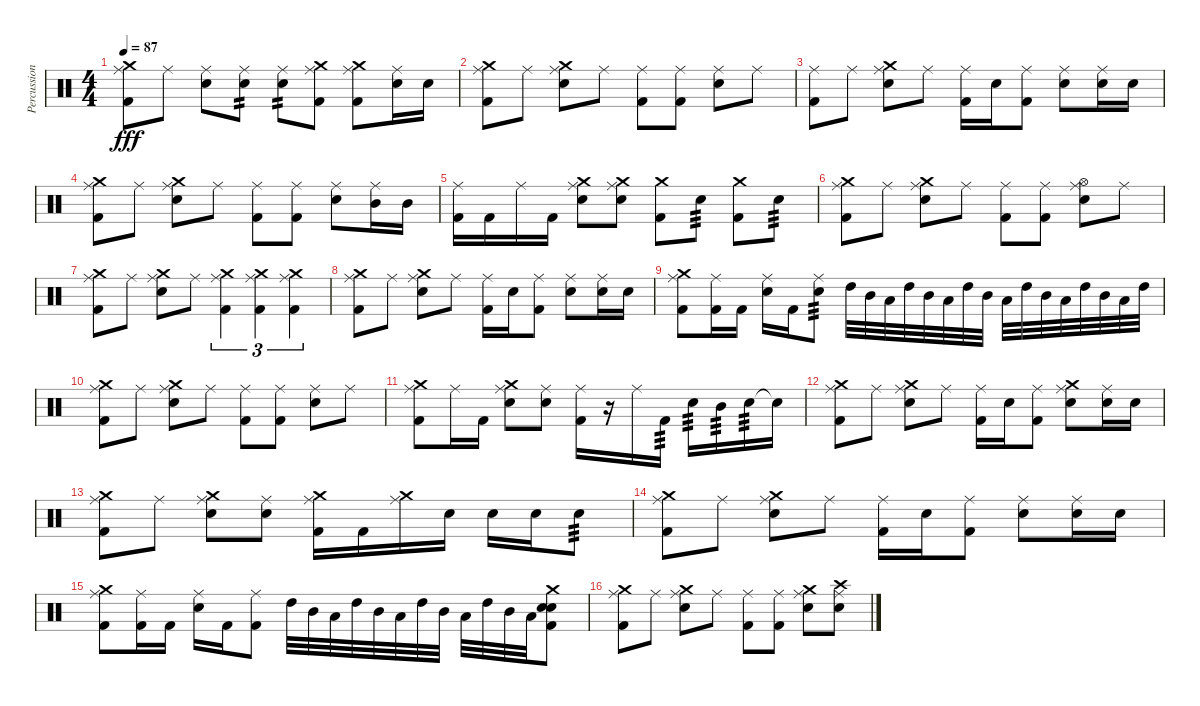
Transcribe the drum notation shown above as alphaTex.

\track ("Percussion" "Percussion") {instrument percussion}
\staff {score}
\articulation defaults
\ts (4 4)
\tempo 87
\clef neutral
\ks c
("Ride (middle)" "Crash medium (hit)" "Kick (hit) 2").8{dy fff} "Ride (middle)".8 ("Ride (middle)" "Electric Snare (hit)").8 ("Ride (middle)" "Electric Snare (hit)").8{tp 2} ("Ride (middle)" "Electric Snare (hit)").8{tp 2} ("Ride (middle)" "Crash medium (hit)" "Kick (hit) 2").8 ("Ride (middle)" "Crash medium (hit)" "Kick (hit) 2").8 ("Ride (middle)" "Electric Snare (hit)").16 "Electric Snare (hit)".16 |
("Ride (middle)" "Crash medium (hit)" "Kick (hit) 2").8 "Ride (middle)".8 ("Ride (middle)" "Crash medium (hit)" "Electric Snare (hit)").8 "Ride (middle)".8 ("Ride (middle)" "Kick (hit) 2").8 ("Ride (middle)" "Kick (hit) 2").8 ("Ride (middle)" "Electric Snare (hit)").8 "Ride (middle)".8 |
("Ride (middle)" "Kick (hit) 2").8 "Ride (middle)".8 ("Ride (middle)" "Crash medium (hit)" "Electric Snare (hit)").8 "Ride (middle)".8 ("Ride (middle)" "Kick (hit) 2").16 "Electric Snare (hit)".16 ("Ride (middle)" "Kick (hit) 2").8 ("Ride (middle)" "Electric Snare (hit)").8 ("Ride (middle)" "Electric Snare (hit)").16 "Electric Snare (hit)".16 |
("Ride (middle)" "Crash medium (hit)" "Kick (hit) 2").8 "Ride (middle)".8 ("Ride (middle)" "Crash medium (hit)" "Electric Snare (hit)").8 "Ride (middle)".8 ("Ride (middle)" "Kick (hit) 2").8 ("Ride (middle)" "Kick (hit) 2").8 ("Ride (middle)" "Electric Snare (hit)").8 ("Ride (middle)" "Mid Tom (hit)").16 "Mid Tom (hit)".16 |
("Ride (middle)" "Kick (hit) 2").16 "Kick (hit) 2".16 "Ride (middle)".16 "Kick (hit) 2".16 ("Ride (middle)" "Crash medium (hit)" "Electric Snare (hit)").8 ("Ride (middle)" "Crash medium (hit)" "Electric Snare (hit)").8 ("Crash medium (hit)" "Kick (hit) 2").8 "Electric Snare (hit)".8{tp 3} ("Crash medium (hit)" "Kick (hit) 2").8 "Electric Snare (hit)".8{tp 3} |
("Ride (middle)" "Crash medium (hit)" "Kick (hit) 2").8 "Ride (middle)".8 ("Ride (middle)" "Crash medium (hit)" "Electric Snare (hit)").8 "Ride (middle)".8 ("Ride (middle)" "Kick (hit) 2").8 ("Ride (middle)" "Kick (hit) 2").8 ("Ride (middle)" "Hi-Hat (open)" "Electric Snare (hit)").8 "Ride (middle)".8 |
("Ride (middle)" "Crash medium (hit)" "Kick (hit) 2").8 "Ride (middle)".8 ("Ride (middle)" "Crash medium (hit)" "Electric Snare (hit)").8 "Ride (middle)".8 ("Ride (middle)" "Crash medium (hit)" "Kick (hit) 2").4{tu (3 2)} ("Ride (middle)" "Crash medium (hit)" "Kick (hit) 2").4{tu (3 2)} ("Ride (middle)" "Crash medium (hit)" "Kick (hit) 2").4{tu (3 2)} |
("Ride (middle)" "Crash medium (hit)" "Kick (hit) 2").8 "Ride (middle)".8 ("Ride (middle)" "Crash medium (hit)" "Electric Snare (hit)").8 "Ride (middle)".8 ("Ride (middle)" "Kick (hit) 2").16 "Electric Snare (hit)".16 ("Ride (middle)" "Kick (hit) 2").8 ("Ride (middle)" "Electric Snare (hit)").8 ("Ride (middle)" "Electric Snare (hit)").16 "Electric Snare (hit)".16 |
("Ride (middle)" "Crash medium (hit)" "Kick (hit) 2").8 ("Ride (middle)" "Kick (hit) 2").16 "Kick (hit) 2".16 ("Ride (middle)" "Electric Snare (hit)").16 "Kick (hit) 2".16 ("Ride (middle)" "Electric Snare (hit)").8{tp 3} "High Tom (hit)".32 "Mid Tom (hit)".32 "Low Tom (hit)".32 "High Tom (hit)".32 "Mid Tom (hit)".32 "Low Tom (hit)".32 "High Tom (hit)".32 "Mid Tom (hit)".32 "Low Tom (hit)".32 "High Tom (hit)".32 "Mid Tom (hit)".32 "Low Tom (hit)".32 "High Tom (hit)".32 "Mid Tom (hit)".32 "Low Tom (hit)".32 "High Tom (hit)".32 |
("Ride (middle)" "Crash medium (hit)" "Kick (hit) 2").8 "Ride (middle)".8 ("Ride (middle)" "Crash medium (hit)" "Electric Snare (hit)").8 "Ride (middle)".8 ("Ride (middle)" "Kick (hit) 2").8 ("Ride (middle)" "Kick (hit) 2").8 ("Ride (middle)" "Electric Snare (hit)").8 "Ride (middle)".8 |
("Ride (middle)" "Crash medium (hit)" "Kick (hit) 2").8 "Ride (middle)".16 "Kick (hit) 2".16 ("Ride (middle)" "Crash medium (hit)" "Electric Snare (hit)").8 ("Ride (middle)" "Electric Snare (hit)").8 ("Ride (middle)" "Kick (hit) 2").16 r.16 "Ride (middle)".16 "Kick (hit) 2".16{tp 3} "Electric Snare (hit)".16{tp 3} "Mid Tom (hit)".16{tp 3} "Electric Snare (hit)".16{tp 3} "Snare (hit)"{t}.16 |
("Ride (middle)" "Crash medium (hit)" "Kick (hit) 2").8 "Ride (middle)".8 ("Ride (middle)" "Crash medium (hit)" "Electric Snare (hit)").8 "Ride (middle)".8 ("Ride (middle)" "Kick (hit) 2").16 "Electric Snare (hit)".16 ("Ride (middle)" "Kick (hit) 2").8 ("Ride (middle)" "Crash medium (hit)" "Electric Snare (hit)").8 ("Ride (middle)" "Electric Snare (hit)").16 "Electric Snare (hit)".16 |
("Ride (middle)" "Crash medium (hit)" "Kick (hit) 2").8 "Ride (middle)".8 ("Ride (middle)" "Crash medium (hit)" "Electric Snare (hit)").8 ("Ride (middle)" "Electric Snare (hit)").8 ("Ride (middle)" "Crash medium (hit)" "Kick (hit) 2").16 "Kick (hit) 2".16 ("Ride (middle)" "Crash medium (hit)").16 "Electric Snare (hit)".16 "Electric Snare (hit)".16 "Electric Snare (hit)".16 "Electric Snare (hit)".8{tp 3} |
("Ride (middle)" "Crash medium (hit)" "Kick (hit) 2").8 "Ride (middle)".8 ("Ride (middle)" "Crash medium (hit)" "Electric Snare (hit)").8 "Ride (middle)".8 ("Ride (middle)" "Kick (hit) 2").16 "Electric Snare (hit)".16 ("Ride (middle)" "Kick (hit) 2").8 ("Ride (middle)" "Electric Snare (hit)").8 ("Ride (middle)" "Electric Snare (hit)").16 "Electric Snare (hit)".16 |
("Ride (middle)" "Crash medium (hit)" "Kick (hit) 2").8 ("Ride (middle)" "Kick (hit) 2").16 "Kick (hit) 2".16 ("Ride (middle)" "Electric Snare (hit)").16 "Kick (hit) 2".16 ("Ride (middle)" "Kick (hit) 2").8 "High Tom (hit)".32 "Mid Tom (hit)".32 "Low Tom (hit)".32 "High Tom (hit)".32 "Mid Tom (hit)".32 "Low Tom (hit)".32 "High Tom (hit)".32 "Mid Tom (hit)".32 "Low Tom (hit)".32 "High Tom (hit)".32 "Mid Tom (hit)".32 "Low Tom (hit)".32 ("Crash medium (hit)" "Electric Snare (hit)" "Electric Snare (hit)" "Kick (hit) 2").8 |
("Ride (middle)" "Crash medium (hit)" "Kick (hit) 2").8 "Ride (middle)".8 ("Ride (middle)" "Crash medium (hit)" "Electric Snare (hit)").8 "Ride (middle)".8 ("Ride (middle)" "Kick (hit) 2").8 ("Ride (middle)" "Kick (hit) 2").8 ("Ride (middle)" "Crash medium (hit)" "Electric Snare (hit)").8 ("Ride (middle)" "Crash high (hit)" "Electric Snare (hit)").8
